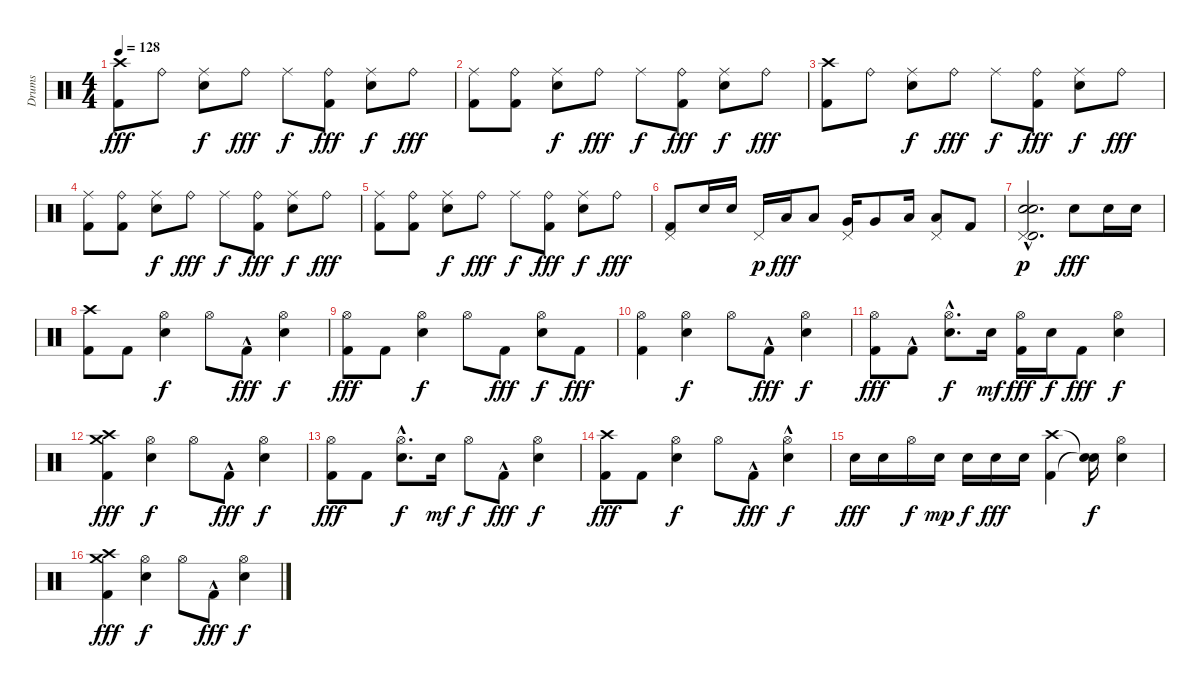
\track ("Drums" "Drums") {instrument percussion}
\staff {score}
\articulation defaults
\ts (4 4)
\tempo 128
\clef neutral
\ks c
("Crash high (hit)" "Kick (hit) 2").8{dy fff} "Ride (bell)".8 ("Ride (middle)" "Snare (hit) 2").8{dy f} "Ride (bell)".8{dy fff} "Ride (middle)".8{dy f} ("Ride (bell)" "Kick (hit) 2").8{dy fff} ("Ride (middle)" "Snare (hit) 2").8{dy f} "Ride (bell)".8{dy fff} |
("Ride (middle)" "Kick (hit) 2").8 ("Ride (bell)" "Kick (hit) 2").8 ("Ride (middle)" "Snare (hit) 2").8{dy f} "Ride (bell)".8{dy fff} "Ride (middle)".8{dy f} ("Ride (bell)" "Kick (hit) 2").8{dy fff} ("Ride (middle)" "Snare (hit) 2").8{dy f} "Ride (bell)".8{dy fff} |
("Crash high (hit)" "Kick (hit) 2").8 "Ride (bell)".8 ("Ride (middle)" "Snare (hit) 2").8{dy f} "Ride (bell)".8{dy fff} "Ride (middle)".8{dy f} ("Ride (bell)" "Kick (hit) 2").8{dy fff} ("Ride (middle)" "Snare (hit) 2").8{dy f} "Ride (bell)".8{dy fff} |
("Ride (middle)" "Kick (hit) 2").8 ("Ride (bell)" "Kick (hit) 2").8 ("Ride (middle)" "Snare (hit) 2").8{dy f} "Ride (bell)".8{dy fff} "Ride (middle)".8{dy f} ("Ride (bell)" "Kick (hit) 2").8{dy fff} ("Ride (middle)" "Snare (hit) 2").8{dy f} "Ride (bell)".8{dy fff} |
("Ride (middle)" "Kick (hit) 2").8 ("Ride (bell)" "Kick (hit) 2").8 ("Ride (middle)" "Snare (hit) 2").8{dy f} "Ride (bell)".8{dy fff} "Ride (middle)".8{dy f} ("Ride (bell)" "Kick (hit) 2").8{dy fff} ("Ride (middle)" "Snare (hit) 2").8{dy f} "Ride (bell)".8{dy fff} |
("Pedal Hi-Hat (hit)" "Kick (hit) 2").8 "Snare (hit) 2".16 "Snare (hit) 2".16 "Pedal Hi-Hat (hit)".16{dy p} "Low Tom (hit)".16{dy fff} "Low Tom (hit)".8 ("Pedal Hi-Hat (hit)" "Very Low Tom (hit)").16 "Very Low Tom (hit)".8 "Low Floor Tom (hit)".16 ("Pedal Hi-Hat (hit)" "Low Floor Tom (hit)").8 "Kick (hit) 2".8 |
("Pedal Hi-Hat (hit)"{hac} "Snare (hit) 2"{hac} "Electric Snare (hit)"{hac} "Timbale high (hit)"{hac}).2{d dy p} "Snare (hit) 2".8{dy fff} "Snare (hit) 2".16 "Snare (hit) 2".16 |
("Crash high (hit)" "Kick (hit) 2").8 "Kick (hit) 2".8 ("Hi-Hat (open)" "Snare (hit) 2").4{dy f} "Hi-Hat (open)".8 "Kick (hit) 2"{hac}.8{dy fff} ("Hi-Hat (open)" "Snare (hit) 2").4{dy f} |
("Hi-Hat (open)" "Kick (hit) 2").8{dy fff} "Kick (hit) 2".8 ("Hi-Hat (open)" "Snare (hit) 2").4{dy f} "Hi-Hat (open)".8 "Kick (hit) 2".8{dy fff} ("Hi-Hat (open)" "Snare (hit) 2").8{dy f} "Kick (hit) 2".8{dy fff} |
("Hi-Hat (open)" "Kick (hit) 2").4 ("Hi-Hat (open)" "Snare (hit) 2").4{dy f} "Hi-Hat (open)".8 "Kick (hit) 2"{hac}.8{dy fff} ("Hi-Hat (open)" "Snare (hit) 2").4{dy f} |
("Hi-Hat (open)" "Kick (hit) 2").8{dy fff} "Kick (hit) 2"{hac}.8 ("Hi-Hat (open)" "Snare (hit) 2"{hac}).8{d dy f} "Snare (hit) 2".16{dy mf} ("Hi-Hat (open)" "Kick (hit) 2").16{dy fff} "Snare (hit) 2".16{dy f} "Kick (hit) 2".8{dy fff} ("Hi-Hat (open)" "Snare (hit) 2").4{dy f} |
("Crash high (hit)" "Crash medium (hit)" "Kick (hit) 2").4{dy fff} ("Hi-Hat (open)" "Snare (hit) 2").4{dy f} "Hi-Hat (open)".8 "Kick (hit) 2"{hac}.8{dy fff} ("Hi-Hat (open)" "Snare (hit) 2").4{dy f} |
("Hi-Hat (open)" "Kick (hit) 2").8{dy fff} "Kick (hit) 2".8 ("Hi-Hat (open)" "Snare (hit) 2"{hac}).8{d dy f} "Snare (hit) 2".16{dy mf} "Hi-Hat (open)".8{dy f} "Kick (hit) 2"{hac}.8{dy fff} ("Hi-Hat (open)" "Snare (hit) 2").4{dy f} |
("Crash high (hit)" "Kick (hit) 2").8{dy fff} "Kick (hit) 2".8 ("Hi-Hat (open)" "Snare (hit) 2").4{dy f} "Hi-Hat (open)".8 "Kick (hit) 2"{hac}.8{dy fff} ("Hi-Hat (open)"{hac} "Snare (hit) 2").4{dy f} |
"Snare (hit) 2".16{dy fff} "Snare (hit) 2".16 "Hi-Hat (open)".16{dy f} "Snare (hit) 2".16{dy mp} "Snare (hit) 2".16{dy f} "Snare (hit) 2".16{dy fff} "Snare (hit) 2".16 ("Crash high (hit)" "Kick (hit) 2").4 ("Snare (hit)"{t} "Snare (hit)"{t}).16{dy f} ("Hi-Hat (open)" "Snare (hit) 2").4 |
("Crash high (hit)" "Crash medium (hit)" "Kick (hit) 2").4{dy fff} ("Hi-Hat (open)" "Snare (hit) 2").4{dy f} "Hi-Hat (open)".8 "Kick (hit) 2"{hac}.8{dy fff} ("Hi-Hat (open)" "Snare (hit) 2").4{dy f}
